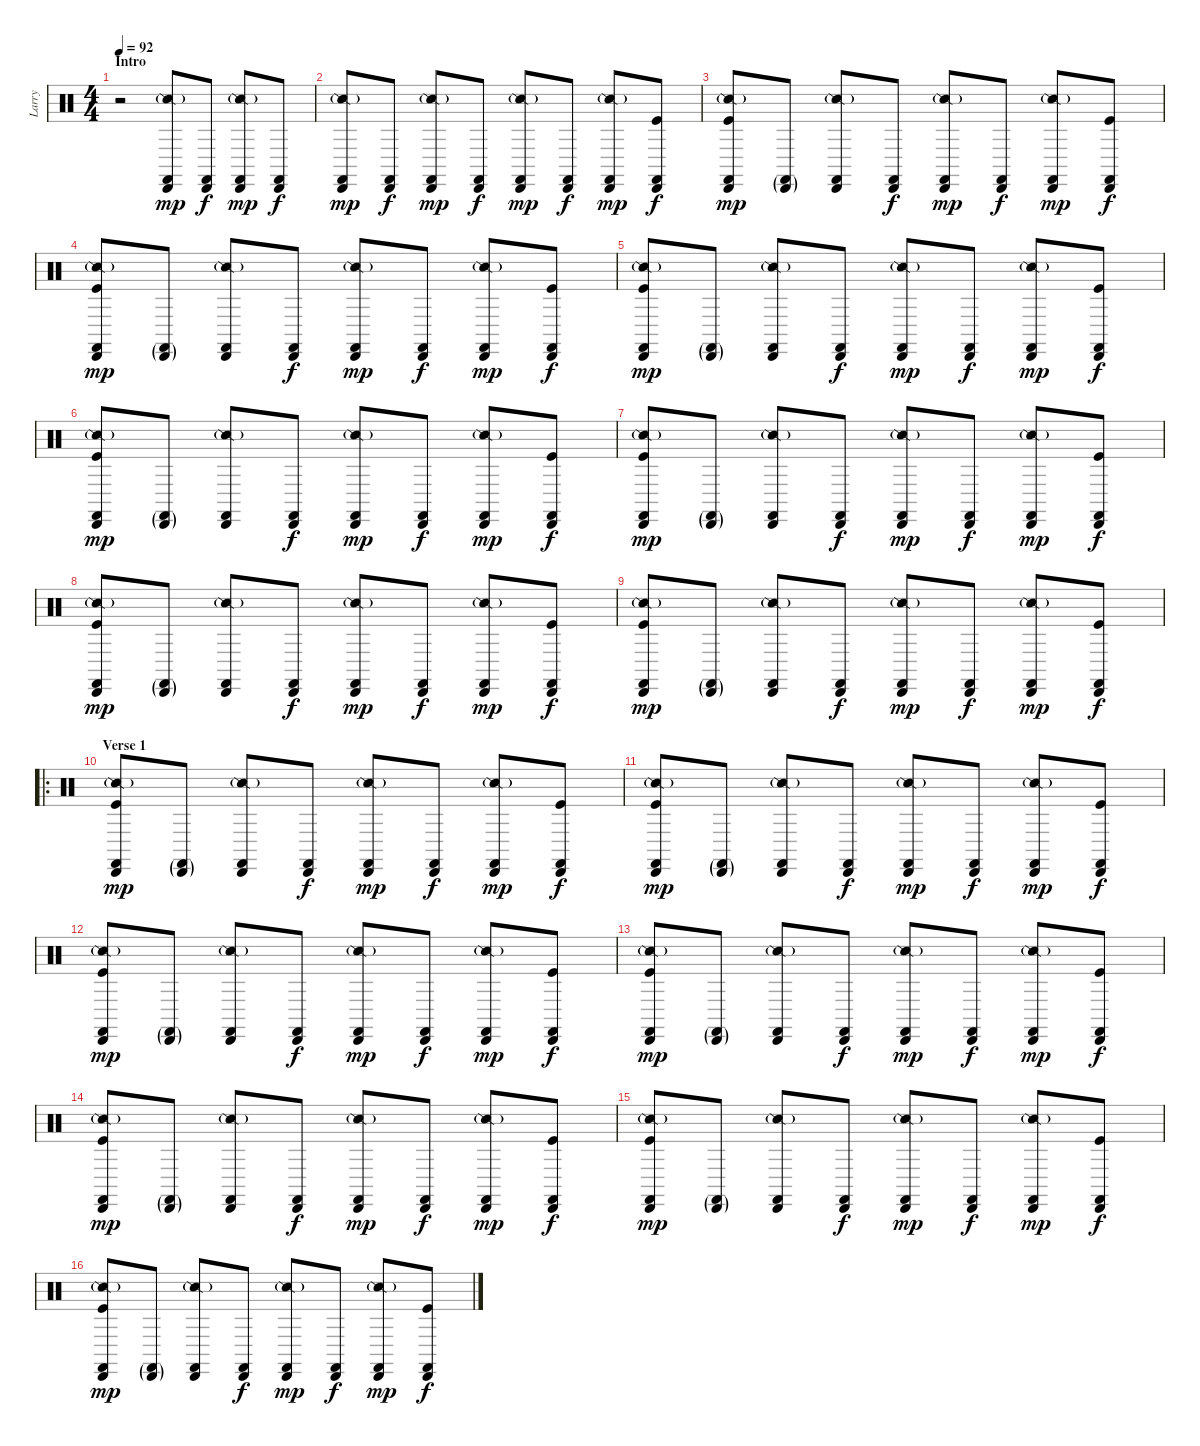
\track ("Larry" "Larry") {instrument percussion}
\staff {score}
\articulation defaults
\ts (4 4)
\section ("" "Intro")
\tempo 92
\clef neutral
\ks c
r.2{dy mp} ("Snare (side stick) 2"{g} "Castanets (hit)" "Cabasa (hit)").8 ("Castanets (hit)" "Cabasa (hit)").8{dy f} ("Snare (side stick) 2"{g} "Castanets (hit)" "Cabasa (hit)").8{dy mp} ("Castanets (hit)" "Cabasa (hit)").8{dy f} |
("Snare (side stick) 2"{g} "Castanets (hit)" "Cabasa (hit)").8{dy mp} ("Castanets (hit)" "Cabasa (hit)").8{dy f} ("Snare (side stick) 2"{g} "Castanets (hit)" "Cabasa (hit)").8{dy mp} ("Castanets (hit)" "Cabasa (hit)").8{dy f} ("Snare (side stick) 2"{g} "Castanets (hit)" "Cabasa (hit)").8{dy mp} ("Castanets (hit)" "Cabasa (hit)").8{dy f} ("Snare (side stick) 2"{g} "Castanets (hit)" "Cabasa (hit)").8{dy mp} ("Castanets (hit)" "Cabasa (hit)" "Kick (hit)").8{dy f} |
("Snare (side stick) 2"{g} "Castanets (hit)" "Cabasa (hit)" "Kick (hit)").8{dy mp} ("Castanets (hit)"{g} "Cabasa (hit)"{g}).8 ("Snare (side stick) 2"{g} "Castanets (hit)" "Cabasa (hit)").8 ("Castanets (hit)" "Cabasa (hit)").8{dy f} ("Snare (side stick) 2"{g} "Castanets (hit)" "Cabasa (hit)").8{dy mp} ("Castanets (hit)" "Cabasa (hit)").8{dy f} ("Snare (side stick) 2"{g} "Castanets (hit)" "Cabasa (hit)").8{dy mp} ("Castanets (hit)" "Cabasa (hit)" "Kick (hit)").8{dy f} |
("Snare (side stick) 2"{g} "Castanets (hit)" "Cabasa (hit)" "Kick (hit)").8{dy mp} ("Castanets (hit)"{g} "Cabasa (hit)"{g}).8 ("Snare (side stick) 2"{g} "Castanets (hit)" "Cabasa (hit)").8 ("Castanets (hit)" "Cabasa (hit)").8{dy f} ("Snare (side stick) 2"{g} "Castanets (hit)" "Cabasa (hit)").8{dy mp} ("Castanets (hit)" "Cabasa (hit)").8{dy f} ("Snare (side stick) 2"{g} "Castanets (hit)" "Cabasa (hit)").8{dy mp} ("Castanets (hit)" "Cabasa (hit)" "Kick (hit)").8{dy f} |
("Snare (side stick) 2"{g} "Castanets (hit)" "Cabasa (hit)" "Kick (hit)").8{dy mp} ("Castanets (hit)"{g} "Cabasa (hit)"{g}).8 ("Snare (side stick) 2"{g} "Castanets (hit)" "Cabasa (hit)").8 ("Castanets (hit)" "Cabasa (hit)").8{dy f} ("Snare (side stick) 2"{g} "Castanets (hit)" "Cabasa (hit)").8{dy mp} ("Castanets (hit)" "Cabasa (hit)").8{dy f} ("Snare (side stick) 2"{g} "Castanets (hit)" "Cabasa (hit)").8{dy mp} ("Castanets (hit)" "Cabasa (hit)" "Kick (hit)").8{dy f} |
("Snare (side stick) 2"{g} "Castanets (hit)" "Cabasa (hit)" "Kick (hit)").8{dy mp} ("Castanets (hit)"{g} "Cabasa (hit)"{g}).8 ("Snare (side stick) 2"{g} "Castanets (hit)" "Cabasa (hit)").8 ("Castanets (hit)" "Cabasa (hit)").8{dy f} ("Snare (side stick) 2"{g} "Castanets (hit)" "Cabasa (hit)").8{dy mp} ("Castanets (hit)" "Cabasa (hit)").8{dy f} ("Snare (side stick) 2"{g} "Castanets (hit)" "Cabasa (hit)").8{dy mp} ("Castanets (hit)" "Cabasa (hit)" "Kick (hit)").8{dy f} |
("Snare (side stick) 2"{g} "Castanets (hit)" "Cabasa (hit)" "Kick (hit)").8{dy mp} ("Castanets (hit)"{g} "Cabasa (hit)"{g}).8 ("Snare (side stick) 2"{g} "Castanets (hit)" "Cabasa (hit)").8 ("Castanets (hit)" "Cabasa (hit)").8{dy f} ("Snare (side stick) 2"{g} "Castanets (hit)" "Cabasa (hit)").8{dy mp} ("Castanets (hit)" "Cabasa (hit)").8{dy f} ("Snare (side stick) 2"{g} "Castanets (hit)" "Cabasa (hit)").8{dy mp} ("Castanets (hit)" "Cabasa (hit)" "Kick (hit)").8{dy f} |
("Snare (side stick) 2"{g} "Castanets (hit)" "Cabasa (hit)" "Kick (hit)").8{dy mp} ("Castanets (hit)"{g} "Cabasa (hit)"{g}).8 ("Snare (side stick) 2"{g} "Castanets (hit)" "Cabasa (hit)").8 ("Castanets (hit)" "Cabasa (hit)").8{dy f} ("Snare (side stick) 2"{g} "Castanets (hit)" "Cabasa (hit)").8{dy mp} ("Castanets (hit)" "Cabasa (hit)").8{dy f} ("Snare (side stick) 2"{g} "Castanets (hit)" "Cabasa (hit)").8{dy mp} ("Castanets (hit)" "Cabasa (hit)" "Kick (hit)").8{dy f} |
("Snare (side stick) 2"{g} "Castanets (hit)" "Cabasa (hit)" "Kick (hit)").8{dy mp} ("Castanets (hit)"{g} "Cabasa (hit)"{g}).8 ("Snare (side stick) 2"{g} "Castanets (hit)" "Cabasa (hit)").8 ("Castanets (hit)" "Cabasa (hit)").8{dy f} ("Snare (side stick) 2"{g} "Castanets (hit)" "Cabasa (hit)").8{dy mp} ("Castanets (hit)" "Cabasa (hit)").8{dy f} ("Snare (side stick) 2"{g} "Castanets (hit)" "Cabasa (hit)").8{dy mp} ("Castanets (hit)" "Cabasa (hit)" "Kick (hit)").8{dy f} |
\ro
\section ("" "Verse 1")
("Snare (side stick) 2"{g} "Castanets (hit)" "Cabasa (hit)" "Kick (hit)").8{dy mp} ("Castanets (hit)"{g} "Cabasa (hit)"{g}).8 ("Snare (side stick) 2"{g} "Castanets (hit)" "Cabasa (hit)").8 ("Castanets (hit)" "Cabasa (hit)").8{dy f} ("Snare (side stick) 2"{g} "Castanets (hit)" "Cabasa (hit)").8{dy mp} ("Castanets (hit)" "Cabasa (hit)").8{dy f} ("Snare (side stick) 2"{g} "Castanets (hit)" "Cabasa (hit)").8{dy mp} ("Castanets (hit)" "Cabasa (hit)" "Kick (hit)").8{dy f} |
("Snare (side stick) 2"{g} "Castanets (hit)" "Cabasa (hit)" "Kick (hit)").8{dy mp} ("Castanets (hit)"{g} "Cabasa (hit)"{g}).8 ("Snare (side stick) 2"{g} "Castanets (hit)" "Cabasa (hit)").8 ("Castanets (hit)" "Cabasa (hit)").8{dy f} ("Snare (side stick) 2"{g} "Castanets (hit)" "Cabasa (hit)").8{dy mp} ("Castanets (hit)" "Cabasa (hit)").8{dy f} ("Snare (side stick) 2"{g} "Castanets (hit)" "Cabasa (hit)").8{dy mp} ("Castanets (hit)" "Cabasa (hit)" "Kick (hit)").8{dy f} |
("Snare (side stick) 2"{g} "Castanets (hit)" "Cabasa (hit)" "Kick (hit)").8{dy mp} ("Castanets (hit)"{g} "Cabasa (hit)"{g}).8 ("Snare (side stick) 2"{g} "Castanets (hit)" "Cabasa (hit)").8 ("Castanets (hit)" "Cabasa (hit)").8{dy f} ("Snare (side stick) 2"{g} "Castanets (hit)" "Cabasa (hit)").8{dy mp} ("Castanets (hit)" "Cabasa (hit)").8{dy f} ("Snare (side stick) 2"{g} "Castanets (hit)" "Cabasa (hit)").8{dy mp} ("Castanets (hit)" "Cabasa (hit)" "Kick (hit)").8{dy f} |
("Snare (side stick) 2"{g} "Castanets (hit)" "Cabasa (hit)" "Kick (hit)").8{dy mp} ("Castanets (hit)"{g} "Cabasa (hit)"{g}).8 ("Snare (side stick) 2"{g} "Castanets (hit)" "Cabasa (hit)").8 ("Castanets (hit)" "Cabasa (hit)").8{dy f} ("Snare (side stick) 2"{g} "Castanets (hit)" "Cabasa (hit)").8{dy mp} ("Castanets (hit)" "Cabasa (hit)").8{dy f} ("Snare (side stick) 2"{g} "Castanets (hit)" "Cabasa (hit)").8{dy mp} ("Castanets (hit)" "Cabasa (hit)" "Kick (hit)").8{dy f} |
("Snare (side stick) 2"{g} "Castanets (hit)" "Cabasa (hit)" "Kick (hit)").8{dy mp} ("Castanets (hit)"{g} "Cabasa (hit)"{g}).8 ("Snare (side stick) 2"{g} "Castanets (hit)" "Cabasa (hit)").8 ("Castanets (hit)" "Cabasa (hit)").8{dy f} ("Snare (side stick) 2"{g} "Castanets (hit)" "Cabasa (hit)").8{dy mp} ("Castanets (hit)" "Cabasa (hit)").8{dy f} ("Snare (side stick) 2"{g} "Castanets (hit)" "Cabasa (hit)").8{dy mp} ("Castanets (hit)" "Cabasa (hit)" "Kick (hit)").8{dy f} |
("Snare (side stick) 2"{g} "Castanets (hit)" "Cabasa (hit)" "Kick (hit)").8{dy mp} ("Castanets (hit)"{g} "Cabasa (hit)"{g}).8 ("Snare (side stick) 2"{g} "Castanets (hit)" "Cabasa (hit)").8 ("Castanets (hit)" "Cabasa (hit)").8{dy f} ("Snare (side stick) 2"{g} "Castanets (hit)" "Cabasa (hit)").8{dy mp} ("Castanets (hit)" "Cabasa (hit)").8{dy f} ("Snare (side stick) 2"{g} "Castanets (hit)" "Cabasa (hit)").8{dy mp} ("Castanets (hit)" "Cabasa (hit)" "Kick (hit)").8{dy f} |
("Snare (side stick) 2"{g} "Castanets (hit)" "Cabasa (hit)" "Kick (hit)").8{dy mp} ("Castanets (hit)"{g} "Cabasa (hit)"{g}).8 ("Snare (side stick) 2"{g} "Castanets (hit)" "Cabasa (hit)").8 ("Castanets (hit)" "Cabasa (hit)").8{dy f} ("Snare (side stick) 2"{g} "Castanets (hit)" "Cabasa (hit)").8{dy mp} ("Castanets (hit)" "Cabasa (hit)").8{dy f} ("Snare (side stick) 2"{g} "Castanets (hit)" "Cabasa (hit)").8{dy mp} ("Castanets (hit)" "Cabasa (hit)" "Kick (hit)").8{dy f}
